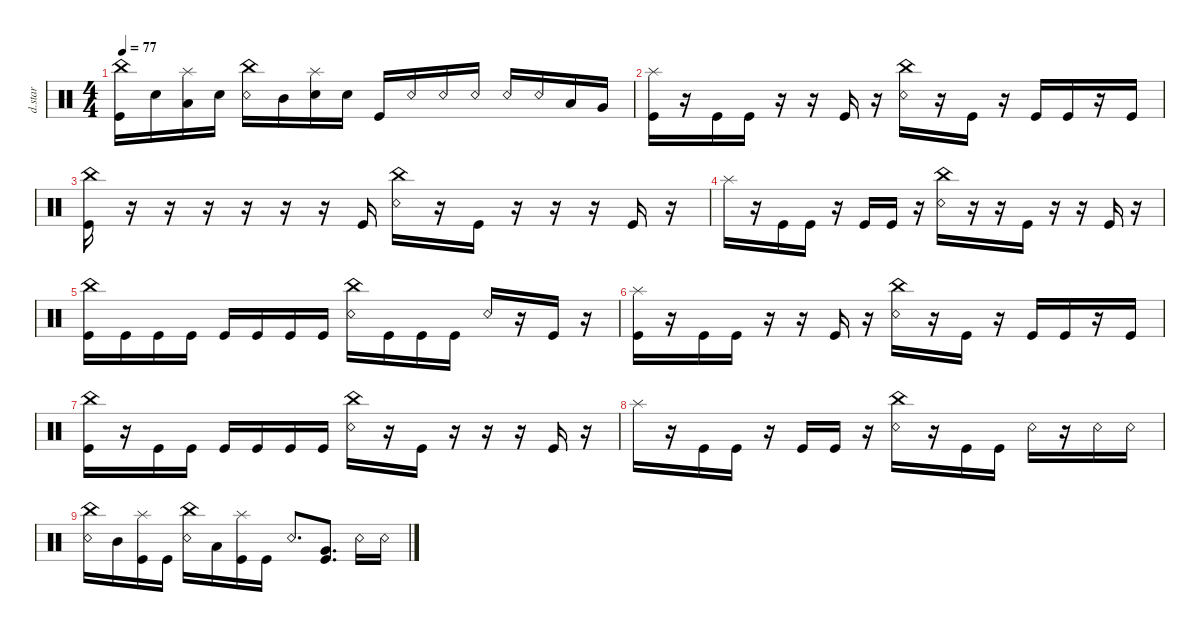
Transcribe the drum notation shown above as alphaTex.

\defaultSystemsLayout 4
\hideDynamics
\bracketExtendMode nobrackets
\otherSystemsTrackNameOrientation horizontal
\track ("Drumkit Star" "d.star") {instrument percussion}
\staff {score}
\articulation defaults
\ts (4 4)
\tempo 77
\clef neutral
\ks c
("Kick (hit)" "China (hit)").16{dy ff} "Snare (hit) 2".16{dy mp} ("Low Tom (hit)" "Splash (hit)").16{dy ff} "Snare (hit) 2".16{dy mp} ("Snare (rim shot)" "China (hit)").16{dy ff} "Mid Tom (hit)".16 ("Snare (hit) 2" "Splash (hit)").16{dy mp} "Snare (hit) 2".16 "Kick (hit)".16{dy ff} "Snare (rim shot)".16 "Snare (rim shot)".16 "Snare (rim shot)".16 "Snare (rim shot)".16 "Snare (rim shot)".16 "Low Tom (hit)".16 "Very Low Tom (hit)".16 |
("Kick (hit)" "Splash (hit)").16 r.16 "Kick (hit)".16 "Kick (hit)".16 r.16 r.16 "Kick (hit)".16 r.16 ("Snare (rim shot)" "China (hit)").16 r.16 "Kick (hit)".16 r.16 "Kick (hit)".16 "Kick (hit)".16 r.16 "Kick (hit)".16 |
("Kick (hit)" "China (hit)").16 r.16 r.16 r.16 r.16 r.16 r.16 "Kick (hit)".16 ("Snare (rim shot)" "China (hit)").16 r.16 "Kick (hit)".16 r.16 r.16 r.16 "Kick (hit)".16 r.16 |
"Splash (hit)".16 r.16 "Kick (hit)".16 "Kick (hit)".16 r.16 "Kick (hit)".16 "Kick (hit)".16 r.16 ("Snare (rim shot)" "China (hit)").16 r.16 r.16 "Kick (hit)".16 r.16 r.16 "Kick (hit)".16 r.16 |
("Kick (hit)" "China (hit)").16 "Kick (hit)".16 "Kick (hit)".16 "Kick (hit)".16 "Kick (hit)".16 "Kick (hit)".16 "Kick (hit)".16 "Kick (hit)".16 ("Snare (rim shot)" "China (hit)").16 "Kick (hit)".16 "Kick (hit)".16 "Kick (hit)".16 "Snare (rim shot)".16 r.16 "Kick (hit)".16 r.16 |
("Kick (hit)" "Splash (hit)").16 r.16 "Kick (hit)".16 "Kick (hit)".16 r.16 r.16 "Kick (hit)".16 r.16 ("Snare (rim shot)" "China (hit)").16 r.16 "Kick (hit)".16 r.16 "Kick (hit)".16 "Kick (hit)".16 r.16 "Kick (hit)".16 |
("China (hit)" "Kick (hit)").16 r.16 "Kick (hit)".16 "Kick (hit)".16 "Kick (hit)".16 "Kick (hit)".16 "Kick (hit)".16 "Kick (hit)".16 ("Snare (rim shot)" "China (hit)").16 r.16 "Kick (hit)".16 r.16 r.16 r.16 "Kick (hit)".16 r.16 |
"Splash (hit)".16 r.16 "Kick (hit)".16 "Kick (hit)".16 r.16 "Kick (hit)".16 "Kick (hit)".16 r.16 ("Snare (rim shot)" "China (hit)").16 r.16 "Kick (hit)".16 "Kick (hit)".16 "Snare (rim shot)".16 r.16 "Snare (rim shot)".16 "Snare (rim shot)".16 |
("China (hit)" "Snare (rim shot)").16 "Mid Tom (hit)".16 ("Splash (hit)" "Kick (hit)").16 "Kick (hit)".16 ("Snare (rim shot)" "China (hit)").16 "Low Tom (hit)".16 ("Splash (hit)" "Kick (hit)").16 "Kick (hit)".16 "Snare (rim shot)".8{d} ("Very Low Tom (hit)" "Kick (hit)").8{d} "Snare (rim shot)".16 "Snare (rim shot)".16
